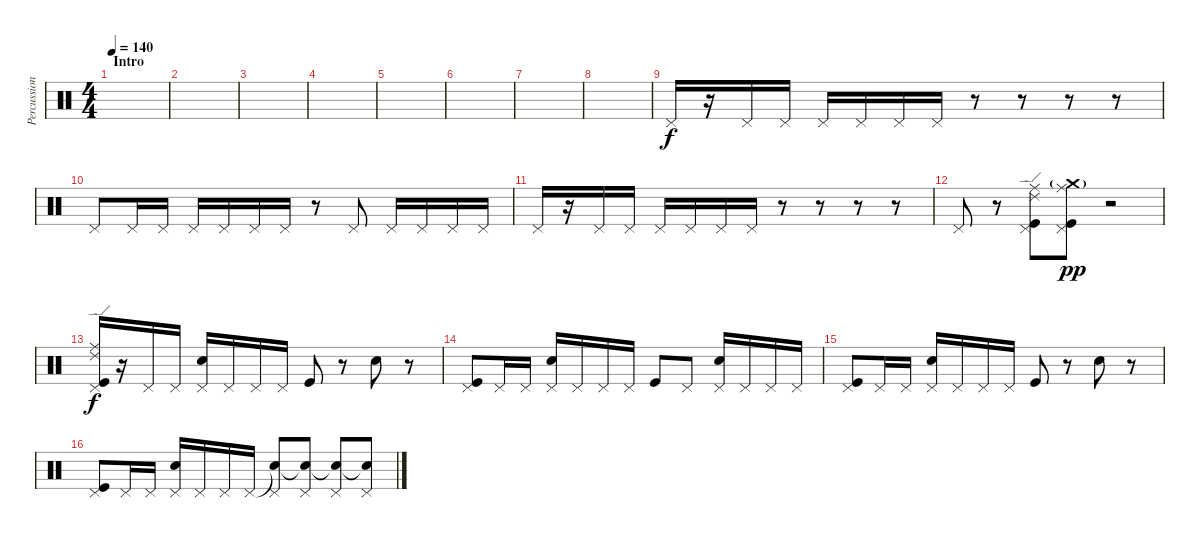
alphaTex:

\track ("Percussion" "Percussion") {instrument percussion}
\staff {score}
\articulation defaults
\ts (4 4)
\section ("" "Intro")
\tempo 140
\clef neutral
\ks c
|
|
|
|
|
|
|
|
"Pedal Hi-Hat (hit)".16 r.16 "Pedal Hi-Hat (hit)".16 "Pedal Hi-Hat (hit)".16 "Pedal Hi-Hat (hit)".16 "Pedal Hi-Hat (hit)".16 "Pedal Hi-Hat (hit)".16 "Pedal Hi-Hat (hit)".16 r.8 r.8 r.8 r.8 |
"Pedal Hi-Hat (hit)".8 "Pedal Hi-Hat (hit)".16 "Pedal Hi-Hat (hit)".16 "Pedal Hi-Hat (hit)".16 "Pedal Hi-Hat (hit)".16 "Pedal Hi-Hat (hit)".16 "Pedal Hi-Hat (hit)".16 r.8 "Pedal Hi-Hat (hit)".8 "Pedal Hi-Hat (hit)".16 "Pedal Hi-Hat (hit)".16 "Pedal Hi-Hat (hit)".16 "Pedal Hi-Hat (hit)".16 |
"Pedal Hi-Hat (hit)".16 r.16 "Pedal Hi-Hat (hit)".16 "Pedal Hi-Hat (hit)".16 "Pedal Hi-Hat (hit)".16 "Pedal Hi-Hat (hit)".16 "Pedal Hi-Hat (hit)".16 "Pedal Hi-Hat (hit)".16 r.8 r.8 r.8 r.8 |
"Pedal Hi-Hat (hit)".8 r.8 ("Ride (edge) 2" "Ride (middle)" "Pedal Hi-Hat (hit)" "Kick (hit)").8 ("Crash medium (hit)"{g} "Ride (middle)" "Pedal Hi-Hat (hit)" "Kick (hit)").8{dy pp} r.2 |
("Ride (middle)" "Ride (edge) 2" "Pedal Hi-Hat (hit)" "Kick (hit)").16{dy f} r.16 "Pedal Hi-Hat (hit)".16 "Pedal Hi-Hat (hit)".16 ("Pedal Hi-Hat (hit)" "Snare (hit) 2").16 "Pedal Hi-Hat (hit)".16 "Pedal Hi-Hat (hit)".16 "Pedal Hi-Hat (hit)".16 "Kick (hit)".8 r.8 "Snare (hit) 2".8 r.8 |
("Pedal Hi-Hat (hit)" "Kick (hit)").8 "Pedal Hi-Hat (hit)".16 "Pedal Hi-Hat (hit)".16 ("Pedal Hi-Hat (hit)" "Snare (hit) 2").16 "Pedal Hi-Hat (hit)".16 "Pedal Hi-Hat (hit)".16 "Pedal Hi-Hat (hit)".16 "Kick (hit)".8 "Pedal Hi-Hat (hit)".8 ("Pedal Hi-Hat (hit)" "Snare (hit) 2").16 "Pedal Hi-Hat (hit)".16 "Pedal Hi-Hat (hit)".16 "Pedal Hi-Hat (hit)".16 |
("Pedal Hi-Hat (hit)" "Kick (hit)").8 "Pedal Hi-Hat (hit)".16 "Pedal Hi-Hat (hit)".16 ("Pedal Hi-Hat (hit)" "Snare (hit) 2").16 "Pedal Hi-Hat (hit)".16 "Pedal Hi-Hat (hit)".16 "Pedal Hi-Hat (hit)".16 "Kick (hit)".8 r.8 "Snare (hit) 2".8 r.8 |
("Pedal Hi-Hat (hit)" "Kick (hit)").8 "Pedal Hi-Hat (hit)".16 "Pedal Hi-Hat (hit)".16 ("Pedal Hi-Hat (hit)" "Snare (hit) 2").16 "Pedal Hi-Hat (hit)".16 "Pedal Hi-Hat (hit)".16 "Pedal Hi-Hat (hit)".16 ("Snare (hit)"{t} "Pedal Hi-Hat (hit)").8 ("Snare (hit)"{t} "Pedal Hi-Hat (hit)").8 ("Snare (hit)"{t} "Pedal Hi-Hat (hit)").8 ("Snare (hit)"{t} "Pedal Hi-Hat (hit)").8
